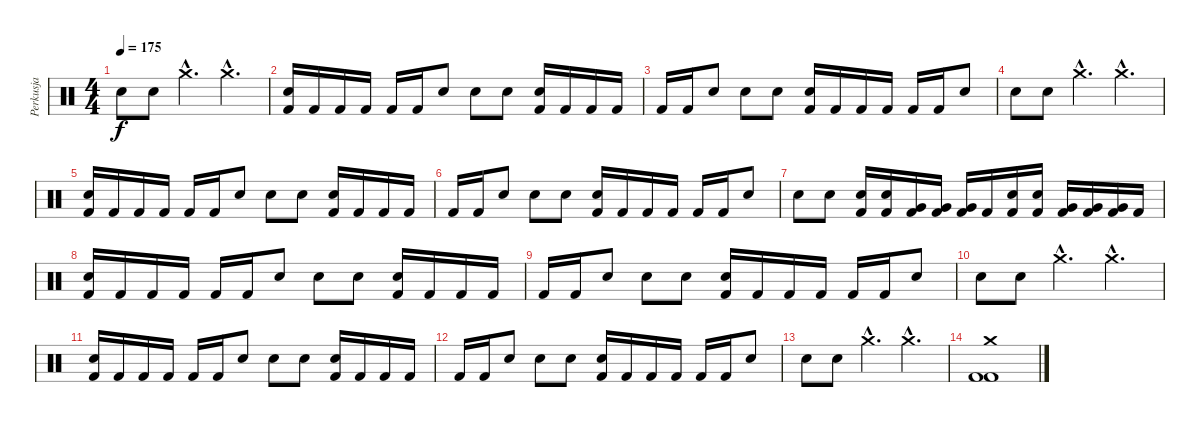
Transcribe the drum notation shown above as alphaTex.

\track ("Perkusja" "Perkusja") {instrument percussion}
\staff {score}
\articulation defaults
\ts (4 4)
\tempo 175
\clef neutral
\ks c "Snare (hit) 2".8{dy f} "Snare (hit) 2".8 "Crash medium (hit)"{hac}.4{d} "Crash medium (hit)"{hac}.4{d}
|
("Snare (hit) 2" "Kick (hit) 2").16 "Kick (hit) 2".16 "Kick (hit) 2".16 "Kick (hit) 2".16 "Kick (hit) 2".16 "Kick (hit) 2".16 "Snare (hit) 2".8 "Snare (hit) 2".8 "Snare (hit) 2".8 ("Snare (hit) 2" "Kick (hit) 2").16 "Kick (hit) 2".16 "Kick (hit) 2".16 "Kick (hit) 2".16 |
"Kick (hit) 2".16 "Kick (hit) 2".16 "Snare (hit) 2".8 "Snare (hit) 2".8 "Snare (hit) 2".8 ("Snare (hit) 2" "Kick (hit) 2").16 "Kick (hit) 2".16 "Kick (hit) 2".16 "Kick (hit) 2".16 "Kick (hit) 2".16 "Kick (hit) 2".16 "Snare (hit) 2".8 |
"Snare (hit) 2".8 "Snare (hit) 2".8 "Crash medium (hit)"{hac}.4{d} "Crash medium (hit)"{hac}.4{d} |
("Snare (hit) 2" "Kick (hit) 2").16 "Kick (hit) 2".16 "Kick (hit) 2".16 "Kick (hit) 2".16 "Kick (hit) 2".16 "Kick (hit) 2".16 "Snare (hit) 2".8 "Snare (hit) 2".8 "Snare (hit) 2".8 ("Snare (hit) 2" "Kick (hit) 2").16 "Kick (hit) 2".16 "Kick (hit) 2".16 "Kick (hit) 2".16 |
"Kick (hit) 2".16 "Kick (hit) 2".16 "Snare (hit) 2".8 "Snare (hit) 2".8 "Snare (hit) 2".8 ("Snare (hit) 2" "Kick (hit) 2").16 "Kick (hit) 2".16 "Kick (hit) 2".16 "Kick (hit) 2".16 "Kick (hit) 2".16 "Kick (hit) 2".16 "Snare (hit) 2".8 |
"Snare (hit) 2".8 "Snare (hit) 2".8 ("Electric Snare (hit)" "Kick (hit) 2").16 ("Snare (hit) 2" "Kick (hit) 2").16 ("Very Low Tom (hit)" "Kick (hit) 2").16 ("Very Low Tom (hit)" "Kick (hit) 2").16 ("Very Low Tom (hit)" "Kick (hit) 2").16 "Kick (hit) 2".16 ("Electric Snare (hit)" "Kick (hit) 2").16 ("Snare (hit) 2" "Kick (hit) 2").16 ("Very Low Tom (hit)" "Kick (hit) 2").16 ("Very Low Tom (hit)" "Kick (hit) 2").16 ("Very Low Tom (hit)" "Kick (hit) 2").16 "Kick (hit) 2".16 |
("Snare (hit) 2" "Kick (hit) 2").16 "Kick (hit) 2".16 "Kick (hit) 2".16 "Kick (hit) 2".16 "Kick (hit) 2".16 "Kick (hit) 2".16 "Snare (hit) 2".8 "Snare (hit) 2".8 "Snare (hit) 2".8 ("Snare (hit) 2" "Kick (hit) 2").16 "Kick (hit) 2".16 "Kick (hit) 2".16 "Kick (hit) 2".16 |
"Kick (hit) 2".16 "Kick (hit) 2".16 "Snare (hit) 2".8 "Snare (hit) 2".8 "Snare (hit) 2".8 ("Snare (hit) 2" "Kick (hit) 2").16 "Kick (hit) 2".16 "Kick (hit) 2".16 "Kick (hit) 2".16 "Kick (hit) 2".16 "Kick (hit) 2".16 "Snare (hit) 2".8 |
"Snare (hit) 2".8 "Snare (hit) 2".8 "Crash medium (hit)"{hac}.4{d} "Crash medium (hit)"{hac}.4{d} |
("Snare (hit) 2" "Kick (hit) 2").16 "Kick (hit) 2".16 "Kick (hit) 2".16 "Kick (hit) 2".16 "Kick (hit) 2".16 "Kick (hit) 2".16 "Snare (hit) 2".8 "Snare (hit) 2".8 "Snare (hit) 2".8 ("Snare (hit) 2" "Kick (hit) 2").16 "Kick (hit) 2".16 "Kick (hit) 2".16 "Kick (hit) 2".16 |
"Kick (hit) 2".16 "Kick (hit) 2".16 "Snare (hit) 2".8 "Snare (hit) 2".8 "Snare (hit) 2".8 ("Snare (hit) 2" "Kick (hit) 2").16 "Kick (hit) 2".16 "Kick (hit) 2".16 "Kick (hit) 2".16 "Kick (hit) 2".16 "Kick (hit) 2".16 "Snare (hit) 2".8 |
"Snare (hit) 2".8 "Snare (hit) 2".8 "Crash medium (hit)"{hac}.4{d} "Crash medium (hit)"{hac}.4{d} |
("Crash medium (hit)" "Kick (hit) 2" "Kick (hit) 2").1
